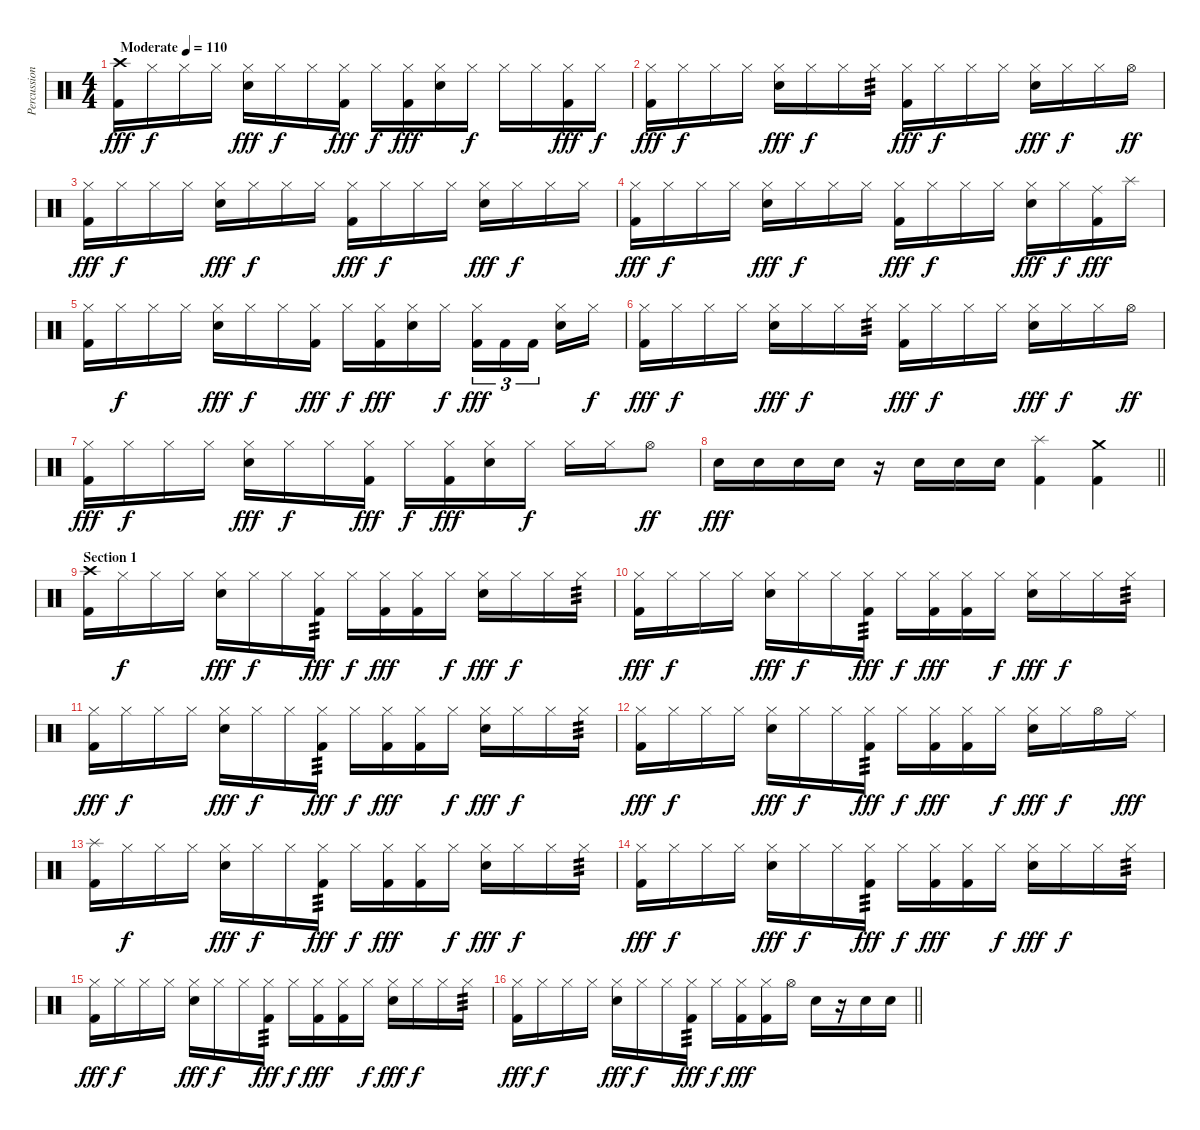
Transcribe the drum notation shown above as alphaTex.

\track ("Percussion" "Percussion") {instrument percussion}
\staff {score}
\articulation defaults
\ts (4 4)
\tempo (110 "Moderate")
\clef neutral
\ks c
("Crash high (hit)" "Kick (hit) 2").16{dy fff} "Hi-Hat (closed)".16{dy f} "Hi-Hat (closed)".16 "Hi-Hat (closed)".16 ("Hi-Hat (closed)" "Electric Snare (hit)").16{dy fff} "Hi-Hat (closed)".16{dy f} "Hi-Hat (closed)".16 ("Hi-Hat (closed)" "Kick (hit) 2").16{dy fff} "Hi-Hat (closed)".16{dy f} ("Hi-Hat (closed)" "Kick (hit) 2").16{dy fff} ("Hi-Hat (closed)" "Electric Snare (hit)").16 "Hi-Hat (closed)".16{dy f} "Hi-Hat (closed)".16 "Hi-Hat (closed)".16 ("Hi-Hat (closed)" "Kick (hit) 2").16{dy fff} "Hi-Hat (closed)".16{dy f} |
("Hi-Hat (closed)" "Kick (hit) 2").16{dy fff} "Hi-Hat (closed)".16{dy f} "Hi-Hat (closed)".16 "Hi-Hat (closed)".16 ("Hi-Hat (closed)" "Electric Snare (hit)").16{dy fff} "Hi-Hat (closed)".16{dy f} "Hi-Hat (closed)".16 "Hi-Hat (closed)".16{tp 3} ("Hi-Hat (closed)" "Kick (hit) 2").16{dy fff} "Hi-Hat (closed)".16{dy f} "Hi-Hat (closed)".16 "Hi-Hat (closed)".16 ("Hi-Hat (closed)" "Electric Snare (hit)").16{dy fff} "Hi-Hat (closed)".16{dy f} "Hi-Hat (closed)".16 "Hi-Hat (open)".16{dy ff} |
("Hi-Hat (closed)" "Kick (hit) 2").16{dy fff} "Hi-Hat (closed)".16{dy f} "Hi-Hat (closed)".16 "Hi-Hat (closed)".16 ("Hi-Hat (closed)" "Electric Snare (hit)").16{dy fff} "Hi-Hat (closed)".16{dy f} "Hi-Hat (closed)".16 "Hi-Hat (closed)".16 ("Hi-Hat (closed)" "Kick (hit) 2").16{dy fff} "Hi-Hat (closed)".16{dy f} "Hi-Hat (closed)".16 "Hi-Hat (closed)".16 ("Hi-Hat (closed)" "Electric Snare (hit)").16{dy fff} "Hi-Hat (closed)".16{dy f} "Hi-Hat (closed)".16 "Hi-Hat (closed)".16 |
("Hi-Hat (closed)" "Kick (hit) 2").16{dy fff} "Hi-Hat (closed)".16{dy f} "Hi-Hat (closed)".16 "Hi-Hat (closed)".16 ("Hi-Hat (closed)" "Electric Snare (hit)").16{dy fff} "Hi-Hat (closed)".16{dy f} "Hi-Hat (closed)".16 "Hi-Hat (closed)".16 ("Hi-Hat (closed)" "Kick (hit) 2").16{dy fff} "Hi-Hat (closed)".16{dy f} "Hi-Hat (closed)".16 "Hi-Hat (closed)".16 ("Hi-Hat (closed)" "Electric Snare (hit)").16{dy fff} "Hi-Hat (closed)".16{dy f} ("Ride (middle)" "Kick (hit) 2").16{dy fff} "Splash (hit)".16 |
("Hi-Hat (closed)" "Kick (hit) 2").16 "Hi-Hat (closed)".16{dy f} "Hi-Hat (closed)".16 "Hi-Hat (closed)".16 ("Hi-Hat (closed)" "Electric Snare (hit)").16{dy fff} "Hi-Hat (closed)".16{dy f} "Hi-Hat (closed)".16 ("Hi-Hat (closed)" "Kick (hit) 2").16{dy fff} "Hi-Hat (closed)".16{dy f} ("Hi-Hat (closed)" "Kick (hit) 2").16{dy fff} ("Hi-Hat (closed)" "Electric Snare (hit)").16 "Hi-Hat (closed)".16{dy f} ("Hi-Hat (closed)" "Kick (hit) 2").16{tu (3 2) dy fff} "Kick (hit) 2".16{tu (3 2)} "Kick (hit) 2".16{tu (3 2) beam splitsecondary} ("Hi-Hat (closed)" "Electric Snare (hit)").16 "Hi-Hat (closed)".16{dy f} |
("Hi-Hat (closed)" "Kick (hit) 2").16{dy fff} "Hi-Hat (closed)".16{dy f} "Hi-Hat (closed)".16 "Hi-Hat (closed)".16 ("Hi-Hat (closed)" "Electric Snare (hit)").16{dy fff} "Hi-Hat (closed)".16{dy f} "Hi-Hat (closed)".16 "Hi-Hat (closed)".16{tp 3} ("Hi-Hat (closed)" "Kick (hit) 2").16{dy fff} "Hi-Hat (closed)".16{dy f} "Hi-Hat (closed)".16 "Hi-Hat (closed)".16 ("Hi-Hat (closed)" "Electric Snare (hit)").16{dy fff} "Hi-Hat (closed)".16{dy f} "Hi-Hat (closed)".16 "Hi-Hat (open)".16{dy ff} |
("Hi-Hat (closed)" "Kick (hit) 2").16{dy fff} "Hi-Hat (closed)".16{dy f} "Hi-Hat (closed)".16 "Hi-Hat (closed)".16 ("Hi-Hat (closed)" "Electric Snare (hit)").16{dy fff} "Hi-Hat (closed)".16{dy f} "Hi-Hat (closed)".16 ("Hi-Hat (closed)" "Kick (hit) 2").16{dy fff} "Hi-Hat (closed)".16{dy f} ("Hi-Hat (closed)" "Kick (hit) 2").16{dy fff} ("Hi-Hat (closed)" "Electric Snare (hit)").16 "Hi-Hat (closed)".16{dy f} "Hi-Hat (closed)".16 "Hi-Hat (closed)".16 "Hi-Hat (open)".8{dy ff} |
\barLineRight lightlight "Electric Snare (hit)".16{dy fff} "Electric Snare (hit)".16 "Electric Snare (hit)".16 "Electric Snare (hit)".16
r.16 "Electric Snare (hit)".16 "Electric Snare (hit)".16 "Electric Snare (hit)".16 ("Splash (hit)" "Kick (hit) 2").4 ("Crash medium (hit)" "Kick (hit) 2").4 |
\section ("" "Section 1")
("Crash high (hit)" "Kick (hit) 2").16 "Hi-Hat (closed)".16{dy f} "Hi-Hat (closed)".16 "Hi-Hat (closed)".16 ("Hi-Hat (closed)" "Electric Snare (hit)").16{dy fff} "Hi-Hat (closed)".16{dy f} "Hi-Hat (closed)".16 ("Hi-Hat (closed)" "Kick (hit) 2").16{tp 3 dy fff} "Hi-Hat (closed)".16{dy f} ("Hi-Hat (closed)" "Kick (hit) 2").16{dy fff} ("Hi-Hat (closed)" "Kick (hit) 2").16 "Hi-Hat (closed)".16{dy f} ("Hi-Hat (closed)" "Electric Snare (hit)").16{dy fff} "Hi-Hat (closed)".16{dy f} "Hi-Hat (closed)".16 "Hi-Hat (closed)".16{tp 3} |
("Hi-Hat (closed)" "Kick (hit) 2").16{dy fff} "Hi-Hat (closed)".16{dy f} "Hi-Hat (closed)".16 "Hi-Hat (closed)".16 ("Hi-Hat (closed)" "Electric Snare (hit)").16{dy fff} "Hi-Hat (closed)".16{dy f} "Hi-Hat (closed)".16 ("Hi-Hat (closed)" "Kick (hit) 2").16{tp 3 dy fff} "Hi-Hat (closed)".16{dy f} ("Hi-Hat (closed)" "Kick (hit) 2").16{dy fff} ("Hi-Hat (closed)" "Kick (hit) 2").16 "Hi-Hat (closed)".16{dy f} ("Hi-Hat (closed)" "Electric Snare (hit)").16{dy fff} "Hi-Hat (closed)".16{dy f} "Hi-Hat (closed)".16 "Hi-Hat (closed)".16{tp 3} |
("Hi-Hat (closed)" "Kick (hit) 2").16{dy fff} "Hi-Hat (closed)".16{dy f} "Hi-Hat (closed)".16 "Hi-Hat (closed)".16 ("Hi-Hat (closed)" "Electric Snare (hit)").16{dy fff} "Hi-Hat (closed)".16{dy f} "Hi-Hat (closed)".16 ("Hi-Hat (closed)" "Kick (hit) 2").16{tp 3 dy fff} "Hi-Hat (closed)".16{dy f} ("Hi-Hat (closed)" "Kick (hit) 2").16{dy fff} ("Hi-Hat (closed)" "Kick (hit) 2").16 "Hi-Hat (closed)".16{dy f} ("Hi-Hat (closed)" "Electric Snare (hit)").16{dy fff} "Hi-Hat (closed)".16{dy f} "Hi-Hat (closed)".16 "Hi-Hat (closed)".16{tp 3} |
("Hi-Hat (closed)" "Kick (hit) 2").16{dy fff} "Hi-Hat (closed)".16{dy f} "Hi-Hat (closed)".16 "Hi-Hat (closed)".16 ("Hi-Hat (closed)" "Electric Snare (hit)").16{dy fff} "Hi-Hat (closed)".16{dy f} "Hi-Hat (closed)".16 ("Hi-Hat (closed)" "Kick (hit) 2").16{tp 3 dy fff} "Hi-Hat (closed)".16{dy f} ("Hi-Hat (closed)" "Kick (hit) 2").16{dy fff} ("Hi-Hat (closed)" "Kick (hit) 2").16 "Hi-Hat (closed)".16{dy f} ("Hi-Hat (closed)" "Electric Snare (hit)").16{dy fff} "Hi-Hat (closed)".16{dy f} "Hi-Hat (open)".16 "Ride (middle)".16{dy fff} |
("Splash (hit)" "Kick (hit) 2").16 "Hi-Hat (closed)".16{dy f} "Hi-Hat (closed)".16 "Hi-Hat (closed)".16 ("Hi-Hat (closed)" "Electric Snare (hit)").16{dy fff} "Hi-Hat (closed)".16{dy f} "Hi-Hat (closed)".16 ("Hi-Hat (closed)" "Kick (hit) 2").16{tp 3 dy fff} "Hi-Hat (closed)".16{dy f} ("Hi-Hat (closed)" "Kick (hit) 2").16{dy fff} ("Hi-Hat (closed)" "Kick (hit) 2").16 "Hi-Hat (closed)".16{dy f} ("Hi-Hat (closed)" "Electric Snare (hit)").16{dy fff} "Hi-Hat (closed)".16{dy f} "Hi-Hat (closed)".16 "Hi-Hat (closed)".16{tp 3} |
("Hi-Hat (closed)" "Kick (hit) 2").16{dy fff} "Hi-Hat (closed)".16{dy f} "Hi-Hat (closed)".16 "Hi-Hat (closed)".16 ("Hi-Hat (closed)" "Electric Snare (hit)").16{dy fff} "Hi-Hat (closed)".16{dy f} "Hi-Hat (closed)".16 ("Hi-Hat (closed)" "Kick (hit) 2").16{tp 3 dy fff} "Hi-Hat (closed)".16{dy f} ("Hi-Hat (closed)" "Kick (hit) 2").16{dy fff} ("Hi-Hat (closed)" "Kick (hit) 2").16 "Hi-Hat (closed)".16{dy f} ("Hi-Hat (closed)" "Electric Snare (hit)").16{dy fff} "Hi-Hat (closed)".16{dy f} "Hi-Hat (closed)".16 "Hi-Hat (closed)".16{tp 3} |
("Hi-Hat (closed)" "Kick (hit) 2").16{dy fff} "Hi-Hat (closed)".16{dy f} "Hi-Hat (closed)".16 "Hi-Hat (closed)".16 ("Hi-Hat (closed)" "Electric Snare (hit)").16{dy fff} "Hi-Hat (closed)".16{dy f} "Hi-Hat (closed)".16 ("Hi-Hat (closed)" "Kick (hit) 2").16{tp 3 dy fff} "Hi-Hat (closed)".16{dy f} ("Hi-Hat (closed)" "Kick (hit) 2").16{dy fff} ("Hi-Hat (closed)" "Kick (hit) 2").16 "Hi-Hat (closed)".16{dy f} ("Hi-Hat (closed)" "Electric Snare (hit)").16{dy fff} "Hi-Hat (closed)".16{dy f} "Hi-Hat (closed)".16 "Hi-Hat (closed)".16{tp 3} |
\barLineRight lightlight
("Hi-Hat (closed)" "Kick (hit) 2").16{dy fff} "Hi-Hat (closed)".16{dy f} "Hi-Hat (closed)".16 "Hi-Hat (closed)".16 ("Hi-Hat (closed)" "Electric Snare (hit)").16{dy fff} "Hi-Hat (closed)".16{dy f} "Hi-Hat (closed)".16 ("Hi-Hat (closed)" "Kick (hit) 2").16{tp 3 dy fff} "Hi-Hat (closed)".16{dy f} ("Hi-Hat (closed)" "Kick (hit) 2").16{dy fff} ("Hi-Hat (closed)" "Kick (hit) 2").16 "Hi-Hat (open)".16 "Electric Snare (hit)".16 r.16 "Electric Snare (hit)".16 "Electric Snare (hit)".16
